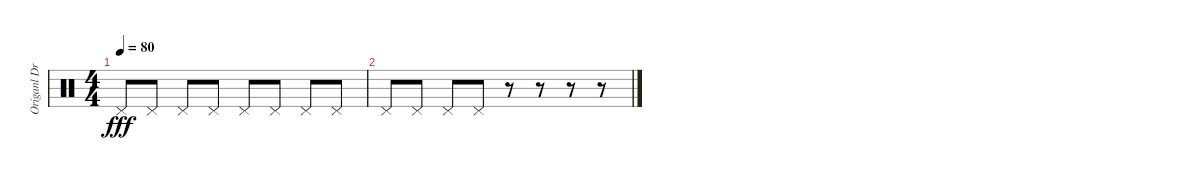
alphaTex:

\track ("Origanl Drum Track" "Origanl Dr") {instrument percussion}
\staff {score}
\articulation defaults
\ts (4 4)
\tempo 80
\clef neutral
\ks c "Pedal Hi-Hat (hit)".8{dy fff} "Pedal Hi-Hat (hit)".8 "Pedal Hi-Hat (hit)".8 "Pedal Hi-Hat (hit)".8 "Pedal Hi-Hat (hit)".8 "Pedal Hi-Hat (hit)".8 "Pedal Hi-Hat (hit)".8 "Pedal Hi-Hat (hit)".8
|
"Pedal Hi-Hat (hit)".8 "Pedal Hi-Hat (hit)".8 "Pedal Hi-Hat (hit)".8 "Pedal Hi-Hat (hit)".8 r.8 r.8 r.8 r.8
